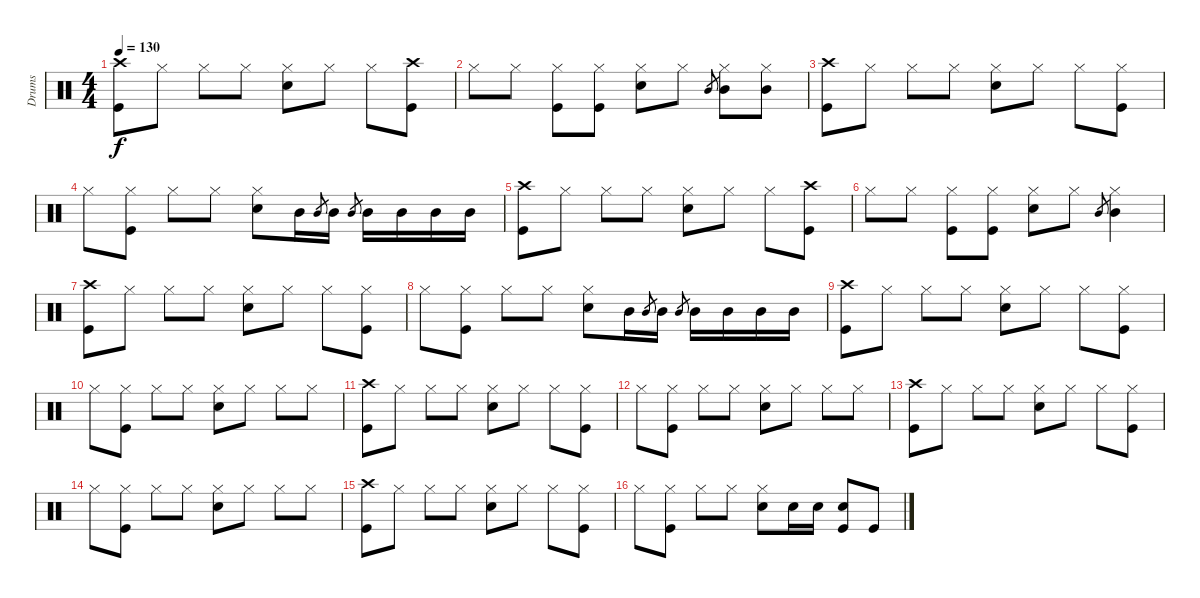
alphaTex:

\track ("Drums" "Drums") {instrument percussion}
\staff {score}
\articulation defaults
\ts (4 4)
\tempo 130
\clef neutral
\ks c
("Crash high (hit)" "Kick (hit)").8{dy f} "Hi-Hat (closed)".8 "Hi-Hat (closed)".8 "Hi-Hat (closed)".8 ("Hi-Hat (closed)" "Snare (hit) 2").8 "Hi-Hat (closed)".8 "Hi-Hat (closed)".8 ("Crash high (hit)" "Kick (hit)").8 |
"Hi-Hat (closed)".8 "Hi-Hat (closed)".8 ("Hi-Hat (closed)" "Kick (hit)").8 ("Hi-Hat (closed)" "Kick (hit)").8 ("Hi-Hat (closed)" "Snare (hit) 2").8 "Hi-Hat (closed)".8 "Mid Tom (hit)".8{gr} ("Hi-Hat (closed)" "Mid Tom (hit)").8 ("Hi-Hat (closed)" "Mid Tom (hit)").8 |
("Crash high (hit)" "Kick (hit)").8 "Hi-Hat (closed)".8 "Hi-Hat (closed)".8 "Hi-Hat (closed)".8 ("Hi-Hat (closed)" "Snare (hit) 2").8 "Hi-Hat (closed)".8 "Hi-Hat (closed)".8 ("Hi-Hat (closed)" "Kick (hit)").8 |
"Hi-Hat (closed)".8 ("Hi-Hat (closed)" "Kick (hit)").8 "Hi-Hat (closed)".8 "Hi-Hat (closed)".8 ("Hi-Hat (closed)" "Snare (hit) 2").8 "Mid Tom (hit)".16 "Mid Tom (hit)".8{gr} "Mid Tom (hit)".16 "Mid Tom (hit)".8{gr} "Mid Tom (hit)".16 "Mid Tom (hit)".16 "Mid Tom (hit)".16 "Mid Tom (hit)".16 |
("Crash high (hit)" "Kick (hit)").8 "Hi-Hat (closed)".8 "Hi-Hat (closed)".8 "Hi-Hat (closed)".8 ("Hi-Hat (closed)" "Snare (hit) 2").8 "Hi-Hat (closed)".8 "Hi-Hat (closed)".8 ("Crash high (hit)" "Kick (hit)").8 |
"Hi-Hat (closed)".8 "Hi-Hat (closed)".8 ("Hi-Hat (closed)" "Kick (hit)").8 ("Hi-Hat (closed)" "Kick (hit)").8 ("Hi-Hat (closed)" "Snare (hit) 2").8 "Hi-Hat (closed)".8 "Mid Tom (hit)".8{gr} ("Hi-Hat (closed)" "Mid Tom (hit)").4 |
("Crash high (hit)" "Kick (hit)").8 "Hi-Hat (closed)".8 "Hi-Hat (closed)".8 "Hi-Hat (closed)".8 ("Hi-Hat (closed)" "Snare (hit) 2").8 "Hi-Hat (closed)".8 "Hi-Hat (closed)".8 ("Hi-Hat (closed)" "Kick (hit)").8 |
"Hi-Hat (closed)".8 ("Hi-Hat (closed)" "Kick (hit)").8 "Hi-Hat (closed)".8 "Hi-Hat (closed)".8 ("Hi-Hat (closed)" "Snare (hit) 2").8 "Mid Tom (hit)".16 "Mid Tom (hit)".8{gr} "Mid Tom (hit)".16 "Mid Tom (hit)".8{gr} "Mid Tom (hit)".16 "Mid Tom (hit)".16 "Mid Tom (hit)".16 "Mid Tom (hit)".16 |
("Crash high (hit)" "Kick (hit)").8 "Hi-Hat (closed)".8 "Hi-Hat (closed)".8 "Hi-Hat (closed)".8 ("Hi-Hat (closed)" "Snare (hit) 2").8 "Hi-Hat (closed)".8 "Hi-Hat (closed)".8 ("Hi-Hat (closed)" "Kick (hit)").8 |
"Hi-Hat (closed)".8 ("Hi-Hat (closed)" "Kick (hit)").8 "Hi-Hat (closed)".8 "Hi-Hat (closed)".8 ("Hi-Hat (closed)" "Snare (hit) 2").8 "Hi-Hat (closed)".8 "Hi-Hat (closed)".8 "Hi-Hat (closed)".8 |
("Crash high (hit)" "Kick (hit)").8 "Hi-Hat (closed)".8 "Hi-Hat (closed)".8 "Hi-Hat (closed)".8 ("Hi-Hat (closed)" "Snare (hit) 2").8 "Hi-Hat (closed)".8 "Hi-Hat (closed)".8 ("Hi-Hat (closed)" "Kick (hit)").8 |
"Hi-Hat (closed)".8 ("Hi-Hat (closed)" "Kick (hit)").8 "Hi-Hat (closed)".8 "Hi-Hat (closed)".8 ("Hi-Hat (closed)" "Snare (hit) 2").8 "Hi-Hat (closed)".8 "Hi-Hat (closed)".8 "Hi-Hat (closed)".8 |
("Crash high (hit)" "Kick (hit)").8 "Hi-Hat (closed)".8 "Hi-Hat (closed)".8 "Hi-Hat (closed)".8 ("Hi-Hat (closed)" "Snare (hit) 2").8 "Hi-Hat (closed)".8 "Hi-Hat (closed)".8 ("Hi-Hat (closed)" "Kick (hit)").8 |
"Hi-Hat (closed)".8 ("Hi-Hat (closed)" "Kick (hit)").8 "Hi-Hat (closed)".8 "Hi-Hat (closed)".8 ("Hi-Hat (closed)" "Snare (hit) 2").8 "Hi-Hat (closed)".8 "Hi-Hat (closed)".8 "Hi-Hat (closed)".8 |
("Crash high (hit)" "Kick (hit)").8 "Hi-Hat (closed)".8 "Hi-Hat (closed)".8 "Hi-Hat (closed)".8 ("Hi-Hat (closed)" "Snare (hit) 2").8 "Hi-Hat (closed)".8 "Hi-Hat (closed)".8 ("Hi-Hat (closed)" "Kick (hit)").8 |
"Hi-Hat (closed)".8 ("Hi-Hat (closed)" "Kick (hit)").8 "Hi-Hat (closed)".8 "Hi-Hat (closed)".8 ("Hi-Hat (closed)" "Snare (hit) 2").8 "Snare (hit) 2".16 "Snare (hit) 2".16 ("Snare (hit) 2" "Kick (hit)").8 "Kick (hit)".8
